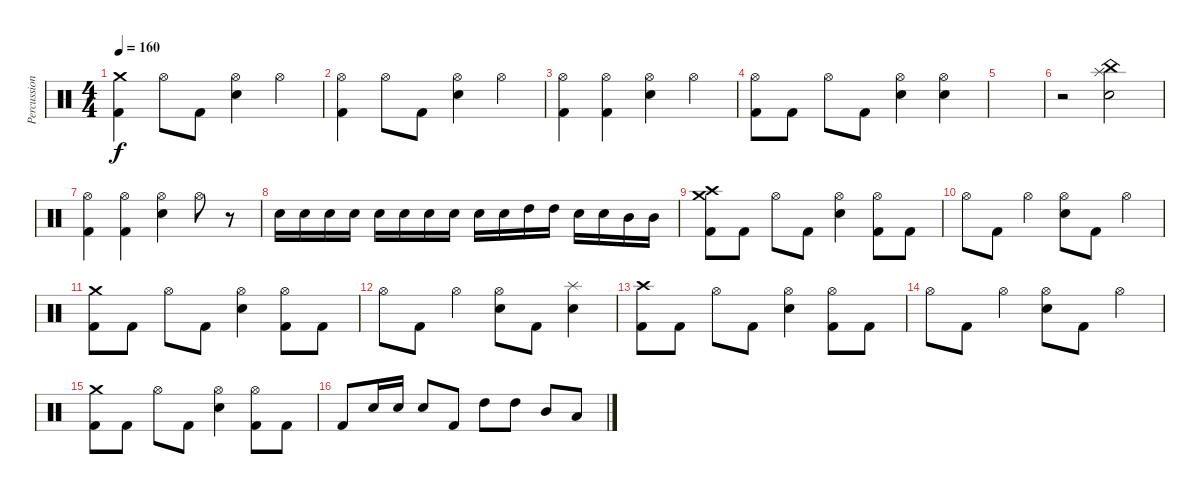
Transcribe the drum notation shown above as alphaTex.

\track ("Percussioni" "Percussion") {instrument percussion}
\staff {score}
\articulation defaults
\ts (4 4)
\tempo 160
\clef neutral
\ks c
("Crash medium (hit)" "Kick (hit) 2").4{dy f} "Hi-Hat (open)".8 "Kick (hit) 2".8 ("Hi-Hat (open)" "Electric Snare (hit)").4 "Hi-Hat (open)".4 |
("Hi-Hat (open)" "Kick (hit) 2").4 "Hi-Hat (open)".8 "Kick (hit) 2".8 ("Hi-Hat (open)" "Electric Snare (hit)").4 "Hi-Hat (open)".4 |
("Hi-Hat (open)" "Kick (hit) 2").4 ("Hi-Hat (open)" "Kick (hit) 2").4 ("Hi-Hat (open)" "Electric Snare (hit)").4 "Hi-Hat (open)".4 |
("Hi-Hat (open)" "Kick (hit) 2").8 "Kick (hit) 2".8 "Hi-Hat (open)".8 "Kick (hit) 2".8 ("Hi-Hat (open)" "Electric Snare (hit)").4 ("Hi-Hat (open)" "Electric Snare (hit)").4 |
|
r.2 ("China (hit)" "Splash (hit)" "Electric Snare (hit)").2 |
("Hi-Hat (open)" "Kick (hit) 2").4 ("Hi-Hat (open)" "Kick (hit) 2").4 ("Hi-Hat (open)" "Electric Snare (hit)").4 "Hi-Hat (open)".8 r.8{volume 0} |
"Electric Snare (hit)".16{volume 16} "Electric Snare (hit)".16 "Electric Snare (hit)".16 "Electric Snare (hit)".16 "Electric Snare (hit)".16 "Electric Snare (hit)".16 "Electric Snare (hit)".16 "Electric Snare (hit)".16 "Electric Snare (hit)".16 "Electric Snare (hit)".16 "High Tom (hit)".16 "High Tom (hit)".16 "Electric Snare (hit)".16 "Electric Snare (hit)".16 "Mid Tom (hit)".16 "Mid Tom (hit)".16 |
("Crash high (hit)" "Crash medium (hit)" "Kick (hit) 2").8 "Kick (hit) 2".8 "Hi-Hat (open)".8 "Kick (hit) 2".8 ("Hi-Hat (open)" "Electric Snare (hit)").4 ("Hi-Hat (open)" "Kick (hit) 2").8 "Kick (hit) 2".8 |
"Hi-Hat (open)".8 "Kick (hit) 2".8 "Hi-Hat (open)".4 ("Hi-Hat (open)" "Electric Snare (hit)").8 "Kick (hit) 2".8 "Hi-Hat (open)".4 |
("Crash medium (hit)" "Kick (hit) 2").8 "Kick (hit) 2".8 "Hi-Hat (open)".8 "Kick (hit) 2".8 ("Hi-Hat (open)" "Electric Snare (hit)").4 ("Hi-Hat (open)" "Kick (hit) 2").8 "Kick (hit) 2".8 |
"Hi-Hat (open)".8 "Kick (hit) 2".8 "Hi-Hat (open)".4 ("Hi-Hat (open)" "Electric Snare (hit)").8 "Kick (hit) 2".8 ("Splash (hit)" "Electric Snare (hit)").4 |
("Crash high (hit)" "Kick (hit) 2").8 "Kick (hit) 2".8 "Hi-Hat (open)".8 "Kick (hit) 2".8 ("Hi-Hat (open)" "Electric Snare (hit)").4 ("Hi-Hat (open)" "Kick (hit) 2").8 "Kick (hit) 2".8 |
"Hi-Hat (open)".8 "Kick (hit) 2".8 "Hi-Hat (open)".4 ("Hi-Hat (open)" "Electric Snare (hit)").8 "Kick (hit) 2".8 "Hi-Hat (open)".4 |
("Crash medium (hit)" "Kick (hit) 2").8 "Kick (hit) 2".8 "Hi-Hat (open)".8 "Kick (hit) 2".8 ("Hi-Hat (open)" "Electric Snare (hit)").4 ("Hi-Hat (open)" "Kick (hit) 2").8 "Kick (hit) 2".8 |
"Kick (hit) 2".8 "Electric Snare (hit)".16 "Electric Snare (hit)".16 "Electric Snare (hit)".8 "Kick (hit) 2".8 "High Tom (hit)".8 "High Tom (hit)".8 "Mid Tom (hit)".8 "Low Tom (hit)".8
